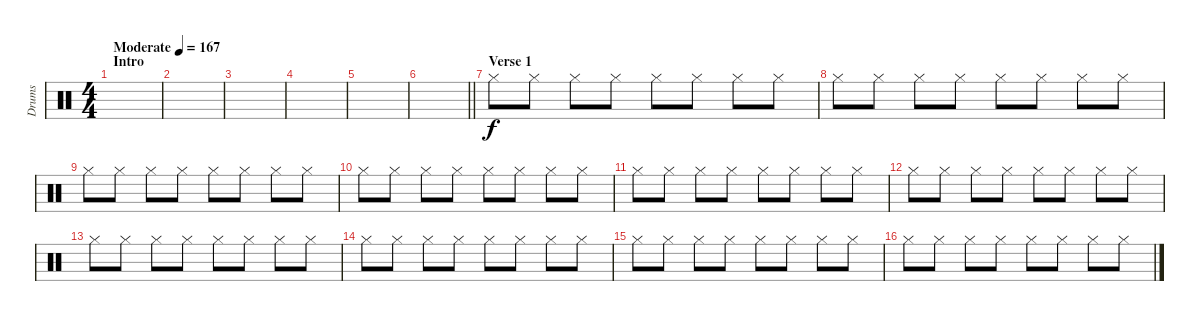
\track ("Drums" "Drums") {instrument percussion}
\staff {score}
\articulation defaults
\ts (4 4)
\section ("" "Intro")
\tempo (167 "Moderate")
\clef neutral
\ks c
|
|
|
|
|
\barLineRight lightlight
|
\section ("" "Verse 1")
"Hi-Hat (closed)".8 "Hi-Hat (closed)".8 "Hi-Hat (closed)".8 "Hi-Hat (closed)".8 "Hi-Hat (closed)".8 "Hi-Hat (closed)".8 "Hi-Hat (closed)".8 "Hi-Hat (closed)".8 |
"Hi-Hat (closed)".8 "Hi-Hat (closed)".8 "Hi-Hat (closed)".8 "Hi-Hat (closed)".8 "Hi-Hat (closed)".8 "Hi-Hat (closed)".8 "Hi-Hat (closed)".8 "Hi-Hat (closed)".8 |
"Hi-Hat (closed)".8 "Hi-Hat (closed)".8 "Hi-Hat (closed)".8 "Hi-Hat (closed)".8 "Hi-Hat (closed)".8 "Hi-Hat (closed)".8 "Hi-Hat (closed)".8 "Hi-Hat (closed)".8 |
"Hi-Hat (closed)".8 "Hi-Hat (closed)".8 "Hi-Hat (closed)".8 "Hi-Hat (closed)".8 "Hi-Hat (closed)".8 "Hi-Hat (closed)".8 "Hi-Hat (closed)".8 "Hi-Hat (closed)".8 |
"Hi-Hat (closed)".8 "Hi-Hat (closed)".8 "Hi-Hat (closed)".8 "Hi-Hat (closed)".8 "Hi-Hat (closed)".8 "Hi-Hat (closed)".8 "Hi-Hat (closed)".8 "Hi-Hat (closed)".8 |
"Hi-Hat (closed)".8 "Hi-Hat (closed)".8 "Hi-Hat (closed)".8 "Hi-Hat (closed)".8 "Hi-Hat (closed)".8 "Hi-Hat (closed)".8 "Hi-Hat (closed)".8 "Hi-Hat (closed)".8 |
"Hi-Hat (closed)".8 "Hi-Hat (closed)".8 "Hi-Hat (closed)".8 "Hi-Hat (closed)".8 "Hi-Hat (closed)".8 "Hi-Hat (closed)".8 "Hi-Hat (closed)".8 "Hi-Hat (closed)".8 |
"Hi-Hat (closed)".8 "Hi-Hat (closed)".8 "Hi-Hat (closed)".8 "Hi-Hat (closed)".8 "Hi-Hat (closed)".8 "Hi-Hat (closed)".8 "Hi-Hat (closed)".8 "Hi-Hat (closed)".8 |
"Hi-Hat (closed)".8 "Hi-Hat (closed)".8 "Hi-Hat (closed)".8 "Hi-Hat (closed)".8 "Hi-Hat (closed)".8 "Hi-Hat (closed)".8 "Hi-Hat (closed)".8 "Hi-Hat (closed)".8 |
"Hi-Hat (closed)".8 "Hi-Hat (closed)".8 "Hi-Hat (closed)".8 "Hi-Hat (closed)".8 "Hi-Hat (closed)".8 "Hi-Hat (closed)".8 "Hi-Hat (closed)".8 "Hi-Hat (closed)".8
